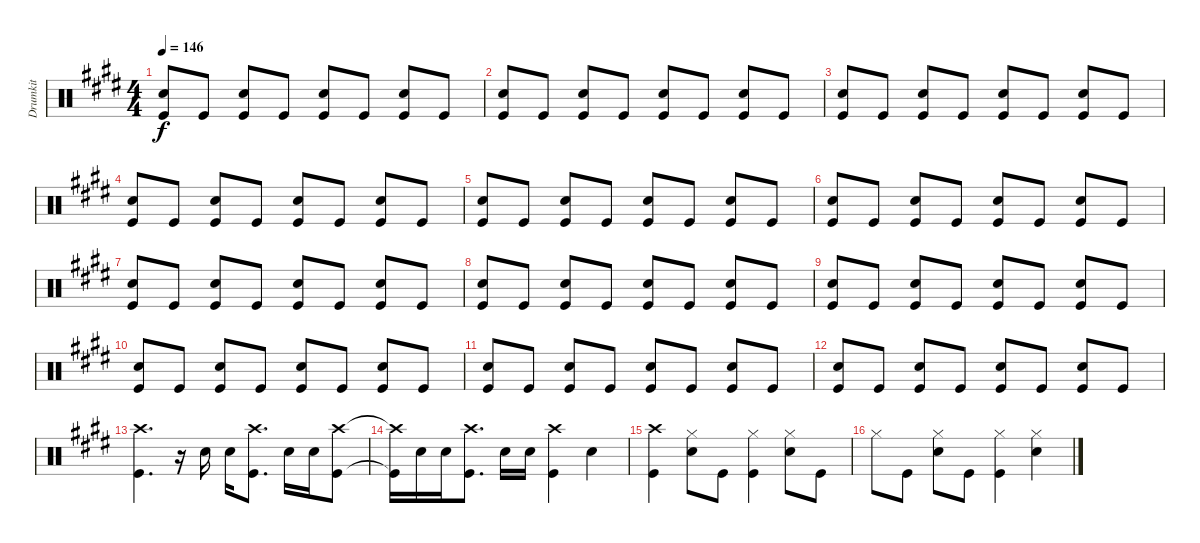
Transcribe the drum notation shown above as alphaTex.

\track ("Drumkit" "Drumkit") {instrument percussion}
\staff {score}
\articulation defaults
\ts (4 4)
\tempo 146
\clef neutral
\ks e
("Kick (hit)" "Snare (hit) 2").8{dy f} "Kick (hit)".8 ("Kick (hit)" "Snare (hit) 2").8 "Kick (hit)".8 ("Kick (hit)" "Snare (hit) 2").8 "Kick (hit)".8 ("Kick (hit)" "Snare (hit) 2").8 "Kick (hit)".8 |
("Kick (hit)" "Snare (hit) 2").8 "Kick (hit)".8 ("Kick (hit)" "Snare (hit) 2").8 "Kick (hit)".8 ("Kick (hit)" "Snare (hit) 2").8 "Kick (hit)".8 ("Kick (hit)" "Snare (hit) 2").8 "Kick (hit)".8 |
("Kick (hit)" "Snare (hit) 2").8 "Kick (hit)".8 ("Kick (hit)" "Snare (hit) 2").8 "Kick (hit)".8 ("Kick (hit)" "Snare (hit) 2").8 "Kick (hit)".8 ("Kick (hit)" "Snare (hit) 2").8 "Kick (hit)".8 |
("Kick (hit)" "Snare (hit) 2").8 "Kick (hit)".8 ("Kick (hit)" "Snare (hit) 2").8 "Kick (hit)".8 ("Kick (hit)" "Snare (hit) 2").8 "Kick (hit)".8 ("Kick (hit)" "Snare (hit) 2").8 "Kick (hit)".8 |
("Kick (hit)" "Snare (hit) 2").8 "Kick (hit)".8 ("Kick (hit)" "Snare (hit) 2").8 "Kick (hit)".8 ("Kick (hit)" "Snare (hit) 2").8 "Kick (hit)".8 ("Kick (hit)" "Snare (hit) 2").8 "Kick (hit)".8 |
("Kick (hit)" "Snare (hit) 2").8 "Kick (hit)".8 ("Kick (hit)" "Snare (hit) 2").8 "Kick (hit)".8 ("Kick (hit)" "Snare (hit) 2").8 "Kick (hit)".8 ("Kick (hit)" "Snare (hit) 2").8 "Kick (hit)".8 |
("Kick (hit)" "Snare (hit) 2").8 "Kick (hit)".8 ("Kick (hit)" "Snare (hit) 2").8 "Kick (hit)".8 ("Kick (hit)" "Snare (hit) 2").8 "Kick (hit)".8 ("Kick (hit)" "Snare (hit) 2").8 "Kick (hit)".8 |
("Kick (hit)" "Snare (hit) 2").8 "Kick (hit)".8 ("Kick (hit)" "Snare (hit) 2").8 "Kick (hit)".8 ("Kick (hit)" "Snare (hit) 2").8 "Kick (hit)".8 ("Kick (hit)" "Snare (hit) 2").8 "Kick (hit)".8 |
("Kick (hit)" "Snare (hit) 2").8 "Kick (hit)".8 ("Kick (hit)" "Snare (hit) 2").8 "Kick (hit)".8 ("Kick (hit)" "Snare (hit) 2").8 "Kick (hit)".8 ("Kick (hit)" "Snare (hit) 2").8 "Kick (hit)".8 |
("Kick (hit)" "Snare (hit) 2").8 "Kick (hit)".8 ("Kick (hit)" "Snare (hit) 2").8 "Kick (hit)".8 ("Kick (hit)" "Snare (hit) 2").8 "Kick (hit)".8 ("Kick (hit)" "Snare (hit) 2").8 "Kick (hit)".8 |
("Kick (hit)" "Snare (hit) 2").8 "Kick (hit)".8 ("Kick (hit)" "Snare (hit) 2").8 "Kick (hit)".8 ("Kick (hit)" "Snare (hit) 2").8 "Kick (hit)".8 ("Kick (hit)" "Snare (hit) 2").8 "Kick (hit)".8 |
("Kick (hit)" "Snare (hit) 2").8 "Kick (hit)".8 ("Kick (hit)" "Snare (hit) 2").8 "Kick (hit)".8 ("Kick (hit)" "Snare (hit) 2").8 "Kick (hit)".8 ("Kick (hit)" "Snare (hit) 2").8 "Kick (hit)".8 |
("Kick (hit)" "Crash high (hit)").4{d} r.16 "Snare (hit) 2".16 "Snare (hit) 2".16 ("Kick (hit)" "Crash high (hit)").8{d} "Snare (hit) 2".16 "Snare (hit) 2".16 ("Kick (hit)" "Crash high (hit)").8 |
("Kick (hit)"{t} "Crash high (hit)"{t}).16 "Snare (hit) 2".16 "Snare (hit) 2".16 ("Kick (hit)" "Crash high (hit)").8{d} "Snare (hit) 2".16 "Snare (hit) 2".16 ("Kick (hit)" "Crash high (hit)").4 "Snare (hit) 2".4 |
("Kick (hit)" "Crash high (hit)").4 ("Snare (hit) 2" "Hi-Hat (closed)").8 "Kick (hit)".8 ("Kick (hit)" "Hi-Hat (closed)").4 ("Snare (hit) 2" "Hi-Hat (closed)").8 "Kick (hit)".8 |
"Hi-Hat (closed)".8 "Kick (hit)".8 ("Snare (hit) 2" "Hi-Hat (closed)").8 "Kick (hit)".8 ("Kick (hit)" "Hi-Hat (closed)").4 ("Snare (hit) 2" "Hi-Hat (closed)").4
